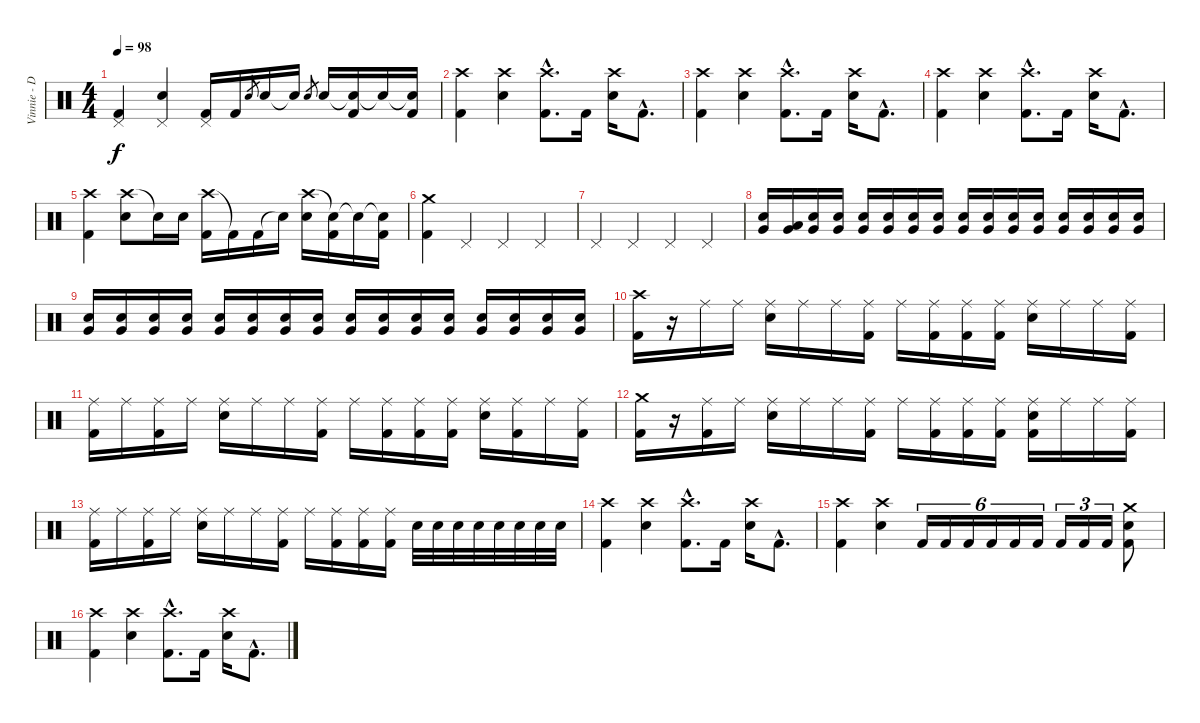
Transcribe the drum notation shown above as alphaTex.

\track ("Vinnie - Drums" "Vinnie - D") {instrument percussion}
\staff {score}
\articulation defaults
\ts (4 4)
\tempo 98
\clef neutral
\ks c
("Pedal Hi-Hat (hit)" "Kick (hit) 2").4{dy f} ("Pedal Hi-Hat (hit)" "Electric Snare (hit)").4 ("Pedal Hi-Hat (hit)" "Kick (hit) 2").16 "Kick (hit) 2".16 "Electric Snare (hit)".8{gr} "Electric Snare (hit)".16 "Electric Snare (hit)"{t}.16 "Electric Snare (hit)".8{gr} "Electric Snare (hit)".16 ("Snare (hit)"{t} "Kick (hit) 2").16 "Snare (hit)"{t}.16 ("Snare (hit)"{t} "Kick (hit) 2").16 |
("Crash high (hit)" "Kick (hit) 2").4 ("Crash high (hit)" "Electric Snare (hit)").4 ("Crash high (hit)"{hac} "Kick (hit) 2"{hac}).8{d} "Kick (hit) 2".16 ("Crash high (hit)" "Electric Snare (hit)").16 "Kick (hit) 2"{hac}.8{d} |
("Crash high (hit)" "Kick (hit) 2").4 ("Crash high (hit)" "Electric Snare (hit)").4 ("Crash high (hit)"{hac} "Kick (hit) 2"{hac}).8{d} "Kick (hit) 2".16 ("Crash high (hit)" "Electric Snare (hit)").16 "Kick (hit) 2"{hac}.8{d} |
("Crash high (hit)" "Kick (hit) 2").4 ("Crash high (hit)" "Electric Snare (hit)").4 ("Crash high (hit)"{hac} "Kick (hit) 2"{hac}).8{d} "Kick (hit) 2".16 ("Crash high (hit)" "Electric Snare (hit)").16 "Kick (hit) 2"{hac}.8{d} |
("Crash high (hit)" "Kick (hit) 2").4 ("Crash high (hit)" "Electric Snare (hit)").8 "Electric Snare (hit)"{t}.16 "Electric Snare (hit)".16 ("Crash high (hit)" "Kick (hit) 2").16 "Kick (hit) 2"{t}.16 "Kick (hit) 2".16 "Snare (hit)"{t}.16 ("Crash high (hit)" "Electric Snare (hit)").16 ("Snare (hit)"{t} "Kick (hit) 2").16 "Snare (hit)"{t}.16 ("Snare (hit)"{t} "Kick (hit) 2").16 |
("Crash medium (hit)" "Kick (hit) 2").4 "Pedal Hi-Hat (hit)".4 "Pedal Hi-Hat (hit)".4 "Pedal Hi-Hat (hit)".4 |
"Pedal Hi-Hat (hit)".4 "Pedal Hi-Hat (hit)".4 "Pedal Hi-Hat (hit)".4 "Pedal Hi-Hat (hit)".4{volume 0} |
("Electric Snare (hit)" "Very Low Tom (hit)").16{volume 13} ("Low Tom (hit)" "Very Low Tom (hit)").16 ("Electric Snare (hit)" "Very Low Tom (hit)").16 ("Electric Snare (hit)" "Very Low Tom (hit)").16 ("Electric Snare (hit)" "Very Low Tom (hit)").16 ("Electric Snare (hit)" "Very Low Tom (hit)").16 ("Electric Snare (hit)" "Very Low Tom (hit)").16 ("Electric Snare (hit)" "Very Low Tom (hit)").16 ("Electric Snare (hit)" "Very Low Tom (hit)").16 ("Electric Snare (hit)" "Very Low Tom (hit)").16 ("Electric Snare (hit)" "Very Low Tom (hit)").16 ("Electric Snare (hit)" "Very Low Tom (hit)").16 ("Electric Snare (hit)" "Very Low Tom (hit)").16 ("Electric Snare (hit)" "Very Low Tom (hit)").16 ("Electric Snare (hit)" "Very Low Tom (hit)").16 ("Electric Snare (hit)" "Very Low Tom (hit)").16 |
("Electric Snare (hit)" "Very Low Tom (hit)").16 ("Electric Snare (hit)" "Very Low Tom (hit)").16 ("Electric Snare (hit)" "Very Low Tom (hit)").16 ("Electric Snare (hit)" "Very Low Tom (hit)").16 ("Electric Snare (hit)" "Very Low Tom (hit)").16 ("Electric Snare (hit)" "Very Low Tom (hit)").16 ("Electric Snare (hit)" "Very Low Tom (hit)").16 ("Electric Snare (hit)" "Very Low Tom (hit)").16 ("Electric Snare (hit)" "Very Low Tom (hit)").16 ("Electric Snare (hit)" "Very Low Tom (hit)").16 ("Electric Snare (hit)" "Very Low Tom (hit)").16 ("Electric Snare (hit)" "Very Low Tom (hit)").16 ("Electric Snare (hit)" "Very Low Tom (hit)").16 ("Electric Snare (hit)" "Very Low Tom (hit)").16 ("Electric Snare (hit)" "Very Low Tom (hit)").16 ("Electric Snare (hit)" "Very Low Tom (hit)").16 |
("Crash high (hit)" "Kick (hit) 2").16 r.16 "Ride (middle)".16 "Ride (middle)".16 ("Ride (middle)" "Electric Snare (hit)").16 "Ride (middle)".16 "Ride (middle)".16 ("Ride (middle)" "Kick (hit) 2").16 "Ride (middle)".16 ("Ride (middle)" "Kick (hit) 2").16 ("Ride (middle)" "Kick (hit) 2").16 ("Ride (middle)" "Kick (hit) 2").16 ("Ride (middle)" "Electric Snare (hit)").16 "Ride (middle)".16 "Ride (middle)".16 ("Ride (middle)" "Kick (hit) 2").16 |
("Ride (middle)" "Kick (hit) 2").16 "Ride (middle)".16 ("Ride (middle)" "Kick (hit) 2").16 "Ride (middle)".16 ("Ride (middle)" "Electric Snare (hit)").16 "Ride (middle)".16 "Ride (middle)".16 ("Ride (middle)" "Kick (hit) 2").16 "Ride (middle)".16 ("Ride (middle)" "Kick (hit) 2").16 ("Ride (middle)" "Kick (hit) 2").16 ("Ride (middle)" "Kick (hit) 2").16 ("Ride (middle)" "Electric Snare (hit)").16 ("Ride (middle)" "Kick (hit) 2").16 "Ride (middle)".16 ("Ride (middle)" "Kick (hit) 2").16 |
("Crash medium (hit)" "Kick (hit) 2").16 r.16 ("Ride (middle)" "Kick (hit) 2").16 "Ride (middle)".16 ("Ride (middle)" "Electric Snare (hit)").16 "Ride (middle)".16 "Ride (middle)".16 ("Ride (middle)" "Kick (hit) 2").16 "Ride (middle)".16 ("Ride (middle)" "Kick (hit) 2").16 ("Ride (middle)" "Kick (hit) 2").16 ("Ride (middle)" "Kick (hit) 2").16 ("Ride (middle)" "Electric Snare (hit)" "Kick (hit) 2").16 "Ride (middle)".16 "Ride (middle)".16 ("Ride (middle)" "Kick (hit) 2").16 |
("Ride (middle)" "Kick (hit) 2").16 "Ride (middle)".16 ("Ride (middle)" "Kick (hit) 2").16 "Ride (middle)".16 ("Ride (middle)" "Electric Snare (hit)").16 "Ride (middle)".16 "Ride (middle)".16 ("Ride (middle)" "Kick (hit) 2").16 "Ride (middle)".16 ("Ride (middle)" "Kick (hit) 2").16 ("Ride (middle)" "Kick (hit) 2").16 ("Ride (middle)" "Kick (hit) 2").16 "Electric Snare (hit)".32 "Electric Snare (hit)".32 "Electric Snare (hit)".32 "Electric Snare (hit)".32 "Electric Snare (hit)".32 "Electric Snare (hit)".32 "Electric Snare (hit)".32 "Electric Snare (hit)".32 |
("Crash high (hit)" "Kick (hit) 2").4 ("Crash high (hit)" "Electric Snare (hit)").4 ("Crash high (hit)"{hac} "Kick (hit) 2"{hac}).8{d} "Kick (hit) 2".16 ("Crash high (hit)" "Electric Snare (hit)").16 "Kick (hit) 2"{hac}.8{d} |
("Crash high (hit)" "Kick (hit) 2").4 ("Crash high (hit)" "Electric Snare (hit)").4 "Kick (hit) 2".16{tu (6 4)} "Kick (hit) 2".16{tu (6 4)} "Kick (hit) 2".16{tu (6 4)} "Kick (hit) 2".16{tu (6 4)} "Kick (hit) 2".16{tu (6 4)} "Kick (hit) 2".16{tu (6 4)} "Kick (hit) 2".16{tu (3 2)} "Kick (hit) 2".16{tu (3 2)} "Kick (hit) 2".16{tu (3 2)} ("Crash medium (hit)" "Electric Snare (hit)" "Kick (hit) 2").8 |
("Crash high (hit)" "Kick (hit) 2").4 ("Crash high (hit)" "Electric Snare (hit)").4 ("Crash high (hit)"{hac} "Kick (hit) 2"{hac}).8{d} "Kick (hit) 2".16 ("Crash high (hit)" "Electric Snare (hit)").16 "Kick (hit) 2"{hac}.8{d}
